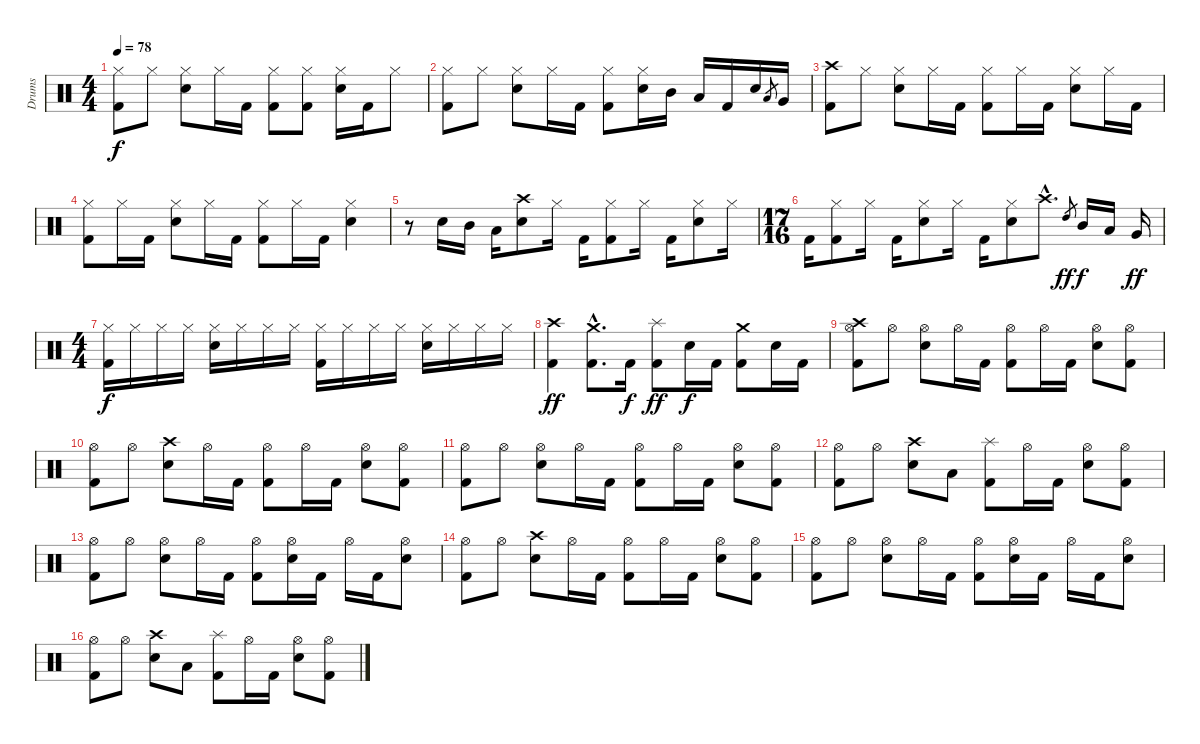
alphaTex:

\track ("Drums" "Drums") {instrument percussion}
\staff {score}
\articulation defaults
\ts (4 4)
\tempo 78
\clef neutral
\ks c
("Hi-Hat (closed)" "Kick (hit) 2").8{dy f} "Hi-Hat (closed)".8 ("Hi-Hat (closed)" "Electric Snare (hit)").8 "Hi-Hat (closed)".16 "Kick (hit) 2".16 ("Hi-Hat (closed)" "Kick (hit) 2").8 ("Hi-Hat (closed)" "Kick (hit) 2").8 ("Hi-Hat (closed)" "Electric Snare (hit)").16 "Kick (hit) 2".16 "Hi-Hat (closed)".8 |
("Hi-Hat (closed)" "Kick (hit) 2").8 "Hi-Hat (closed)".8 ("Hi-Hat (closed)" "Electric Snare (hit)").8 "Hi-Hat (closed)".16 "Kick (hit) 2".16 ("Hi-Hat (closed)" "Kick (hit) 2").8 ("Hi-Hat (closed)" "Electric Snare (hit)").16 "Mid Tom (hit)".16 "Low Tom (hit)".16 "Kick (hit) 2".16 "Electric Snare (hit)".16 "Low Tom (hit)".8{gr} "Very Low Tom (hit)".16 |
("Crash high (hit)" "Kick (hit) 2").8 "Hi-Hat (closed)".8 ("Hi-Hat (closed)" "Electric Snare (hit)").8 "Hi-Hat (closed)".16 "Kick (hit) 2".16 ("Hi-Hat (closed)" "Kick (hit) 2").8 "Hi-Hat (closed)".16 "Kick (hit) 2".16 ("Hi-Hat (closed)" "Electric Snare (hit)").8 "Hi-Hat (closed)".16 "Kick (hit) 2".16 |
("Hi-Hat (closed)" "Kick (hit) 2").8 "Hi-Hat (closed)".16 "Kick (hit) 2".16 ("Hi-Hat (closed)" "Electric Snare (hit)").8 "Hi-Hat (closed)".16 "Kick (hit) 2".16 ("Hi-Hat (closed)" "Kick (hit) 2").8 "Hi-Hat (closed)".16 "Kick (hit) 2".16 ("Hi-Hat (closed)" "Electric Snare (hit)").4 |
r.8 "Electric Snare (hit)".16 "Mid Tom (hit)".16 "Low Tom (hit)".16 ("Crash high (hit)" "Electric Snare (hit)").8 "Hi-Hat (closed)".16 "Kick (hit) 2".16 ("Hi-Hat (closed)" "Kick (hit) 2").8 "Hi-Hat (closed)".16 "Kick (hit) 2".16 ("Hi-Hat (closed)" "Electric Snare (hit)").8 "Hi-Hat (closed)".16 |
\ts (17 16)
"Kick (hit) 2".16 ("Hi-Hat (closed)" "Kick (hit) 2").8 "Hi-Hat (closed)".16 "Kick (hit) 2".16 ("Hi-Hat (closed)" "Electric Snare (hit)").8 "Hi-Hat (closed)".16 "Kick (hit) 2".16 ("Hi-Hat (closed)" "Electric Snare (hit)").8 "Crash high (hit)"{hac}.8{d} "High Tom (hit)".8{gr dy ff} "Mid Tom (hit)".16{dy f} "Low Tom (hit)".16 "Very Low Tom (hit)".16{dy ff} |
\ts (4 4)
("Hi-Hat (closed)" "Kick (hit) 2").16{dy f} "Hi-Hat (closed)".16 "Hi-Hat (closed)".16 "Hi-Hat (closed)".16 ("Hi-Hat (closed)" "Electric Snare (hit)").16 "Hi-Hat (closed)".16 "Hi-Hat (closed)".16 "Hi-Hat (closed)".16 ("Hi-Hat (closed)" "Kick (hit) 2").16 "Hi-Hat (closed)".16 "Hi-Hat (closed)".16 "Hi-Hat (closed)".16 ("Hi-Hat (closed)" "Electric Snare (hit)").16 "Hi-Hat (closed)".16 "Hi-Hat (closed)".16 "Hi-Hat (closed)".16 |
("Crash high (hit)" "Kick (hit) 2").4{dy ff} ("Crash medium (hit)"{hac} "Kick (hit) 2"{hac}).8{d} "Kick (hit) 2".16{dy f} ("Splash (hit)" "Kick (hit) 2").8{dy ff} "Electric Snare (hit)".16{dy f} "Kick (hit) 2".16 ("Crash medium (hit)" "Kick (hit) 2").8 "Electric Snare (hit)".16 "Kick (hit) 2".16 |
("Hi-Hat (open)" "Crash high (hit)" "Kick (hit) 2").8 "Hi-Hat (open)".8 ("Hi-Hat (open)" "Electric Snare (hit)").8 "Hi-Hat (open)".16 "Kick (hit) 2".16 ("Hi-Hat (open)" "Kick (hit) 2").8 "Hi-Hat (open)".16 "Kick (hit) 2".16 ("Hi-Hat (open)" "Electric Snare (hit)").8 ("Hi-Hat (open)" "Kick (hit) 2").8 |
("Hi-Hat (open)" "Kick (hit) 2").8 "Hi-Hat (open)".8 ("Crash high (hit)" "Electric Snare (hit)").8 "Hi-Hat (open)".16 "Kick (hit) 2".16 ("Hi-Hat (open)" "Kick (hit) 2").8 "Hi-Hat (open)".16 "Kick (hit) 2".16 ("Hi-Hat (open)" "Electric Snare (hit)").8 ("Hi-Hat (open)" "Kick (hit) 2").8 |
("Hi-Hat (open)" "Kick (hit) 2").8 "Hi-Hat (open)".8 ("Hi-Hat (open)" "Electric Snare (hit)").8 "Hi-Hat (open)".16 "Kick (hit) 2".16 ("Hi-Hat (open)" "Kick (hit) 2").8 "Hi-Hat (open)".16 "Kick (hit) 2".16 ("Hi-Hat (open)" "Electric Snare (hit)").8 ("Hi-Hat (open)" "Kick (hit) 2").8 |
("Hi-Hat (open)" "Kick (hit) 2").8 "Hi-Hat (open)".8 ("Crash high (hit)" "Electric Snare (hit)").8 "Low Tom (hit)".8 ("Splash (hit)" "Kick (hit) 2").8 "Hi-Hat (open)".16 "Kick (hit) 2".16 ("Hi-Hat (open)" "Electric Snare (hit)").8 ("Hi-Hat (open)" "Kick (hit) 2").8 |
("Hi-Hat (open)" "Kick (hit) 2").8 "Hi-Hat (open)".8 ("Hi-Hat (open)" "Electric Snare (hit)").8 "Hi-Hat (open)".16 "Kick (hit) 2".16 ("Hi-Hat (open)" "Kick (hit) 2").8 ("Hi-Hat (open)" "Electric Snare (hit)").16 "Kick (hit) 2".16 "Hi-Hat (open)".16 "Kick (hit) 2".16 ("Hi-Hat (open)" "Electric Snare (hit)").8 |
("Hi-Hat (open)" "Kick (hit) 2").8 "Hi-Hat (open)".8 ("Crash high (hit)" "Electric Snare (hit)").8 "Hi-Hat (open)".16 "Kick (hit) 2".16 ("Hi-Hat (open)" "Kick (hit) 2").8 "Hi-Hat (open)".16 "Kick (hit) 2".16 ("Hi-Hat (open)" "Electric Snare (hit)").8 ("Hi-Hat (open)" "Kick (hit) 2").8 |
("Hi-Hat (open)" "Kick (hit) 2").8 "Hi-Hat (open)".8 ("Hi-Hat (open)" "Electric Snare (hit)").8 "Hi-Hat (open)".16 "Kick (hit) 2".16 ("Hi-Hat (open)" "Kick (hit) 2").8 ("Hi-Hat (open)" "Electric Snare (hit)").16 "Kick (hit) 2".16 "Hi-Hat (open)".16 "Kick (hit) 2".16 ("Hi-Hat (open)" "Electric Snare (hit)").8 |
("Hi-Hat (open)" "Kick (hit) 2").8 "Hi-Hat (open)".8 ("Crash high (hit)" "Electric Snare (hit)").8 "Low Tom (hit)".8 ("Splash (hit)" "Kick (hit) 2").8 "Hi-Hat (open)".16 "Kick (hit) 2".16 ("Hi-Hat (open)" "Electric Snare (hit)").8 ("Hi-Hat (open)" "Kick (hit) 2").8
